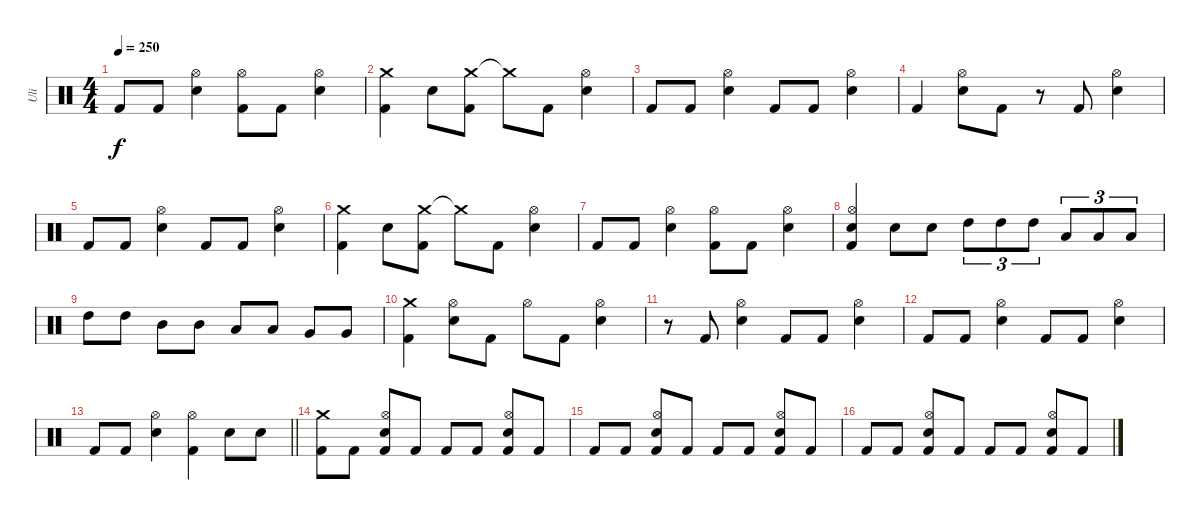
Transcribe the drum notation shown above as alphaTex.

\track ("Uli" "Uli") {instrument percussion}
\staff {score}
\articulation defaults
\ts (4 4)
\tempo 250
\clef neutral
\ks c "Kick (hit) 2".8{dy f} "Kick (hit) 2".8
("Hi-Hat (open)" "Snare (hit) 2").4 ("Hi-Hat (open)" "Kick (hit) 2").8 "Kick (hit) 2".8 ("Hi-Hat (open)" "Snare (hit) 2").4 |
("Crash medium (hit)" "Kick (hit) 2").4 "Snare (hit) 2".8 ("Crash medium (hit)" "Kick (hit) 2").8 "Crash medium (hit)"{t}.8 "Kick (hit) 2".8 ("Hi-Hat (open)" "Snare (hit) 2").4 |
"Kick (hit) 2".8 "Kick (hit) 2".8 ("Hi-Hat (open)" "Snare (hit) 2").4 "Kick (hit) 2".8 "Kick (hit) 2".8 ("Hi-Hat (open)" "Snare (hit) 2").4 |
"Kick (hit) 2".4 ("Hi-Hat (open)" "Snare (hit) 2").8 "Kick (hit) 2".8 r.8 "Kick (hit) 2".8 ("Hi-Hat (open)" "Snare (hit) 2").4 |
"Kick (hit) 2".8 "Kick (hit) 2".8 ("Hi-Hat (open)" "Snare (hit) 2").4 "Kick (hit) 2".8 "Kick (hit) 2".8 ("Hi-Hat (open)" "Snare (hit) 2").4 |
("Crash medium (hit)" "Kick (hit) 2").4 "Snare (hit) 2".8 ("Crash medium (hit)" "Kick (hit) 2").8 "Crash medium (hit)"{t}.8 "Kick (hit) 2".8 ("Hi-Hat (open)" "Snare (hit) 2").4 |
"Kick (hit) 2".8 "Kick (hit) 2".8 ("Hi-Hat (open)" "Snare (hit) 2").4 ("Hi-Hat (open)" "Kick (hit) 2").8 "Kick (hit) 2".8 ("Hi-Hat (open)" "Snare (hit) 2").4 |
("Hi-Hat (open)" "Snare (hit) 2" "Kick (hit) 2").4 "Snare (hit) 2".8 "Snare (hit) 2".8 "High Tom (hit)".8{tu (3 2)} "High Tom (hit)".8{tu (3 2)} "High Tom (hit)".8{tu (3 2)} "Low Tom (hit)".8{tu (3 2)} "Low Tom (hit)".8{tu (3 2)} "Low Tom (hit)".8{tu (3 2)} |
"High Tom (hit)".8 "High Tom (hit)".8 "Mid Tom (hit)".8 "Mid Tom (hit)".8 "Low Tom (hit)".8 "Low Tom (hit)".8 "Very Low Tom (hit)".8 "Very Low Tom (hit)".8 |
("Crash medium (hit)" "Kick (hit) 2").4 ("Hi-Hat (open)" "Snare (hit) 2").8 "Kick (hit) 2".8 "Hi-Hat (open)".8 "Kick (hit) 2".8 ("Hi-Hat (open)" "Snare (hit) 2").4 |
r.8 "Kick (hit) 2".8 ("Hi-Hat (open)" "Snare (hit) 2").4 "Kick (hit) 2".8 "Kick (hit) 2".8 ("Hi-Hat (open)" "Snare (hit) 2").4 |
"Kick (hit) 2".8 "Kick (hit) 2".8 ("Hi-Hat (open)" "Snare (hit) 2").4 "Kick (hit) 2".8 "Kick (hit) 2".8 ("Hi-Hat (open)" "Snare (hit) 2").4 |
\barLineRight lightlight "Kick (hit) 2".8 "Kick (hit) 2".8
("Hi-Hat (open)" "Snare (hit) 2").4 ("Hi-Hat (open)" "Kick (hit) 2").4 "Snare (hit) 2".8 "Snare (hit) 2".8 |
("Crash medium (hit)" "Kick (hit) 2").8 "Kick (hit) 2".8 ("Hi-Hat (open)" "Snare (hit) 2" "Kick (hit) 2").8 "Kick (hit) 2".8 "Kick (hit) 2".8 "Kick (hit) 2".8 ("Hi-Hat (open)" "Snare (hit) 2" "Kick (hit) 2").8 "Kick (hit) 2".8 |
"Kick (hit) 2".8 "Kick (hit) 2".8 ("Hi-Hat (open)" "Snare (hit) 2" "Kick (hit) 2").8 "Kick (hit) 2".8 "Kick (hit) 2".8 "Kick (hit) 2".8 ("Hi-Hat (open)" "Snare (hit) 2" "Kick (hit) 2").8 "Kick (hit) 2".8 |
"Kick (hit) 2".8 "Kick (hit) 2".8 ("Hi-Hat (open)" "Snare (hit) 2" "Kick (hit) 2").8 "Kick (hit) 2".8 "Kick (hit) 2".8 "Kick (hit) 2".8 ("Hi-Hat (open)" "Snare (hit) 2" "Kick (hit) 2").8 "Kick (hit) 2".8
